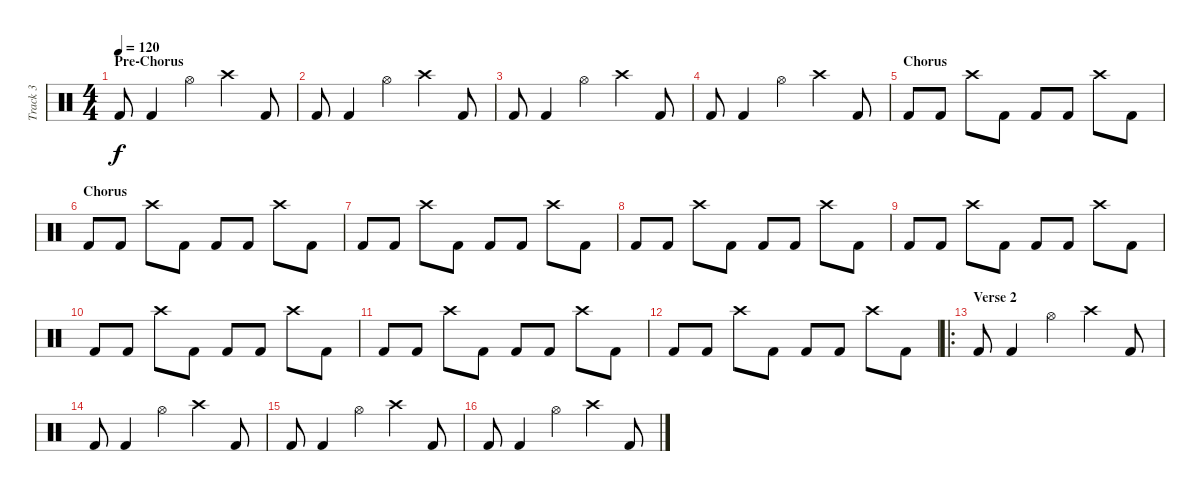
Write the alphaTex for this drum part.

\track ("Track 3" "Track 3") {instrument percussion}
\staff {score}
\articulation defaults
\ts (4 4)
\section ("" "Pre-Chorus")
\tempo 120
\clef neutral
\ks c "Kick (hit) 2".8{dy f} "Kick (hit) 2".4 "Hi-Hat (open)".4 "Crash high (hit)".4 "Kick (hit) 2".8
|
"Kick (hit) 2".8 "Kick (hit) 2".4 "Hi-Hat (open)".4 "Crash high (hit)".4 "Kick (hit) 2".8 |
"Kick (hit) 2".8 "Kick (hit) 2".4 "Hi-Hat (open)".4 "Crash high (hit)".4 "Kick (hit) 2".8 |
"Kick (hit) 2".8 "Kick (hit) 2".4 "Hi-Hat (open)".4 "Crash high (hit)".4 "Kick (hit) 2".8 |
\section ("" "Chorus")
"Kick (hit) 2".8 "Kick (hit) 2".8 "Crash high (hit)".8 "Kick (hit) 2".8 "Kick (hit) 2".8 "Kick (hit) 2".8 "Crash high (hit)".8 "Kick (hit) 2".8 |
\section ("" "Chorus")
"Kick (hit) 2".8 "Kick (hit) 2".8 "Crash high (hit)".8 "Kick (hit) 2".8 "Kick (hit) 2".8 "Kick (hit) 2".8 "Crash high (hit)".8 "Kick (hit) 2".8 |
"Kick (hit) 2".8 "Kick (hit) 2".8 "Crash high (hit)".8 "Kick (hit) 2".8 "Kick (hit) 2".8 "Kick (hit) 2".8 "Crash high (hit)".8 "Kick (hit) 2".8 |
"Kick (hit) 2".8 "Kick (hit) 2".8 "Crash high (hit)".8 "Kick (hit) 2".8 "Kick (hit) 2".8 "Kick (hit) 2".8 "Crash high (hit)".8 "Kick (hit) 2".8 |
"Kick (hit) 2".8 "Kick (hit) 2".8 "Crash high (hit)".8 "Kick (hit) 2".8 "Kick (hit) 2".8 "Kick (hit) 2".8 "Crash high (hit)".8 "Kick (hit) 2".8 |
"Kick (hit) 2".8 "Kick (hit) 2".8 "Crash high (hit)".8 "Kick (hit) 2".8 "Kick (hit) 2".8 "Kick (hit) 2".8 "Crash high (hit)".8 "Kick (hit) 2".8 |
"Kick (hit) 2".8 "Kick (hit) 2".8 "Crash high (hit)".8 "Kick (hit) 2".8 "Kick (hit) 2".8 "Kick (hit) 2".8 "Crash high (hit)".8 "Kick (hit) 2".8 |
"Kick (hit) 2".8 "Kick (hit) 2".8 "Crash high (hit)".8 "Kick (hit) 2".8 "Kick (hit) 2".8 "Kick (hit) 2".8 "Crash high (hit)".8 "Kick (hit) 2".8 |
\ro
\section ("" "Verse 2")
"Kick (hit) 2".8 "Kick (hit) 2".4 "Hi-Hat (open)".4 "Crash high (hit)".4 "Kick (hit) 2".8 |
"Kick (hit) 2".8 "Kick (hit) 2".4 "Hi-Hat (open)".4 "Crash high (hit)".4 "Kick (hit) 2".8 |
"Kick (hit) 2".8 "Kick (hit) 2".4 "Hi-Hat (open)".4 "Crash high (hit)".4 "Kick (hit) 2".8 |
"Kick (hit) 2".8 "Kick (hit) 2".4 "Hi-Hat (open)".4 "Crash high (hit)".4 "Kick (hit) 2".8
